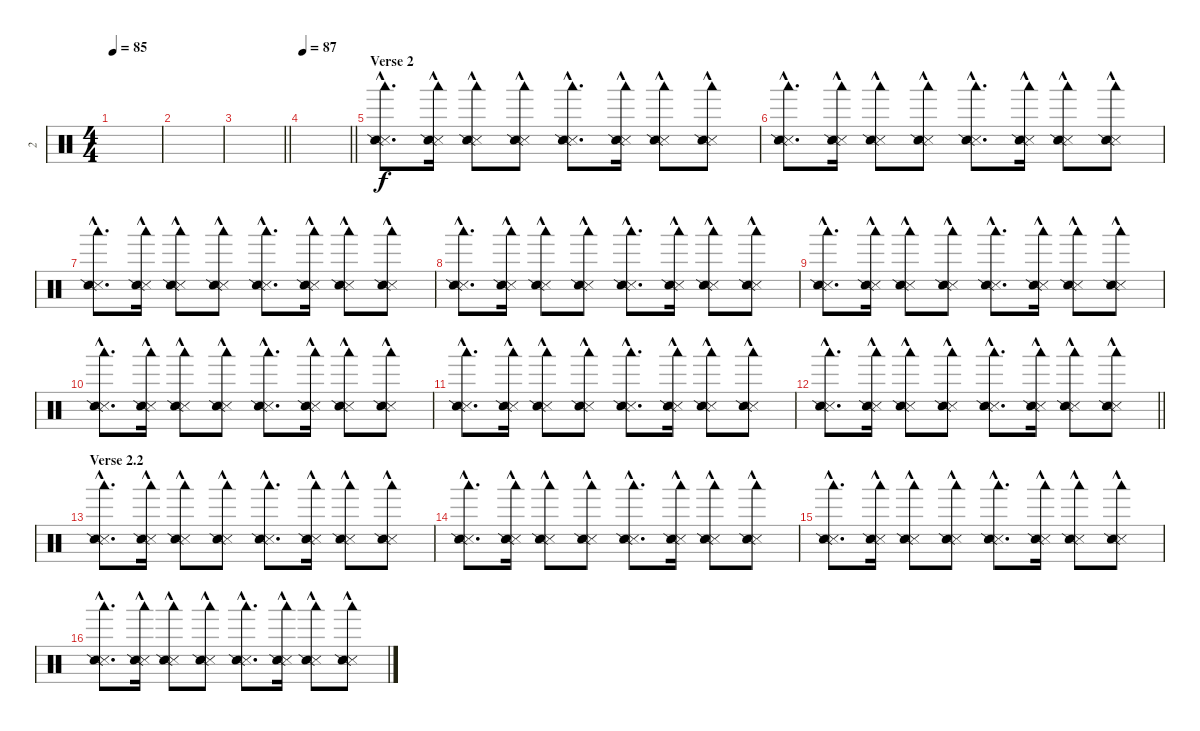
\track ("2" "2") {instrument percussion}
\staff {score}
\articulation defaults
\ts (4 4)
\tempo 85
\clef neutral
\ks c
|
|
\barLineRight lightlight
|
\section ("" "")
\tempo 87
\barLineRight lightlight
|
\section ("" "Verse 2")
("Snare (side stick) 3"{hac} "Snare (side stick) 2"{hac} "Woodblock low (hit)").8{d} ("Snare (side stick) 3"{hac} "Snare (side stick) 2"{hac} "Woodblock low (hit)").16 ("Snare (side stick) 3"{hac} "Snare (side stick) 2"{hac} "Woodblock low (hit)").8 ("Snare (side stick) 3"{hac} "Snare (side stick) 2"{hac} "Woodblock low (hit)").8 ("Snare (side stick) 3"{hac} "Snare (side stick) 2"{hac} "Woodblock low (hit)").8{d} ("Snare (side stick) 3"{hac} "Snare (side stick) 2"{hac} "Woodblock low (hit)").16 ("Snare (side stick) 3"{hac} "Snare (side stick) 2"{hac} "Woodblock low (hit)").8 ("Snare (side stick) 3"{hac} "Snare (side stick) 2"{hac} "Woodblock low (hit)").8 |
("Snare (side stick) 3"{hac} "Snare (side stick) 2"{hac} "Woodblock low (hit)").8{d} ("Snare (side stick) 3"{hac} "Snare (side stick) 2"{hac} "Woodblock low (hit)").16 ("Snare (side stick) 3"{hac} "Snare (side stick) 2"{hac} "Woodblock low (hit)").8 ("Snare (side stick) 3"{hac} "Snare (side stick) 2"{hac} "Woodblock low (hit)").8 ("Snare (side stick) 3"{hac} "Snare (side stick) 2"{hac} "Woodblock low (hit)").8{d} ("Snare (side stick) 3"{hac} "Snare (side stick) 2"{hac} "Woodblock low (hit)").16 ("Snare (side stick) 3"{hac} "Snare (side stick) 2"{hac} "Woodblock low (hit)").8 ("Snare (side stick) 3"{hac} "Snare (side stick) 2"{hac} "Woodblock low (hit)").8 |
("Snare (side stick) 3"{hac} "Snare (side stick) 2"{hac} "Woodblock low (hit)").8{d} ("Snare (side stick) 3"{hac} "Snare (side stick) 2"{hac} "Woodblock low (hit)").16 ("Snare (side stick) 3"{hac} "Snare (side stick) 2"{hac} "Woodblock low (hit)").8 ("Snare (side stick) 3"{hac} "Snare (side stick) 2"{hac} "Woodblock low (hit)").8 ("Snare (side stick) 3"{hac} "Snare (side stick) 2"{hac} "Woodblock low (hit)").8{d} ("Snare (side stick) 3"{hac} "Snare (side stick) 2"{hac} "Woodblock low (hit)").16 ("Snare (side stick) 3"{hac} "Snare (side stick) 2"{hac} "Woodblock low (hit)").8 ("Snare (side stick) 3"{hac} "Snare (side stick) 2"{hac} "Woodblock low (hit)").8 |
("Snare (side stick) 3"{hac} "Snare (side stick) 2"{hac} "Woodblock low (hit)").8{d} ("Snare (side stick) 3"{hac} "Snare (side stick) 2"{hac} "Woodblock low (hit)").16 ("Snare (side stick) 3"{hac} "Snare (side stick) 2"{hac} "Woodblock low (hit)").8 ("Snare (side stick) 3"{hac} "Snare (side stick) 2"{hac} "Woodblock low (hit)").8 ("Snare (side stick) 3"{hac} "Snare (side stick) 2"{hac} "Woodblock low (hit)").8{d} ("Snare (side stick) 3"{hac} "Snare (side stick) 2"{hac} "Woodblock low (hit)").16 ("Snare (side stick) 3"{hac} "Snare (side stick) 2"{hac} "Woodblock low (hit)").8 ("Snare (side stick) 3"{hac} "Snare (side stick) 2"{hac} "Woodblock low (hit)").8 |
("Snare (side stick) 3"{hac} "Snare (side stick) 2"{hac} "Woodblock low (hit)").8{d} ("Snare (side stick) 3"{hac} "Snare (side stick) 2"{hac} "Woodblock low (hit)").16 ("Snare (side stick) 3"{hac} "Snare (side stick) 2"{hac} "Woodblock low (hit)").8 ("Snare (side stick) 3"{hac} "Snare (side stick) 2"{hac} "Woodblock low (hit)").8 ("Snare (side stick) 3"{hac} "Snare (side stick) 2"{hac} "Woodblock low (hit)").8{d} ("Snare (side stick) 3"{hac} "Snare (side stick) 2"{hac} "Woodblock low (hit)").16 ("Snare (side stick) 3"{hac} "Snare (side stick) 2"{hac} "Woodblock low (hit)").8 ("Snare (side stick) 3"{hac} "Snare (side stick) 2"{hac} "Woodblock low (hit)").8 |
("Snare (side stick) 3"{hac} "Snare (side stick) 2"{hac} "Woodblock low (hit)").8{d} ("Snare (side stick) 3"{hac} "Snare (side stick) 2"{hac} "Woodblock low (hit)").16 ("Snare (side stick) 3"{hac} "Snare (side stick) 2"{hac} "Woodblock low (hit)").8 ("Snare (side stick) 3"{hac} "Snare (side stick) 2"{hac} "Woodblock low (hit)").8 ("Snare (side stick) 3"{hac} "Snare (side stick) 2"{hac} "Woodblock low (hit)").8{d} ("Snare (side stick) 3"{hac} "Snare (side stick) 2"{hac} "Woodblock low (hit)").16 ("Snare (side stick) 3"{hac} "Snare (side stick) 2"{hac} "Woodblock low (hit)").8 ("Snare (side stick) 3"{hac} "Snare (side stick) 2"{hac} "Woodblock low (hit)").8 |
("Snare (side stick) 3"{hac} "Snare (side stick) 2"{hac} "Woodblock low (hit)").8{d} ("Snare (side stick) 3"{hac} "Snare (side stick) 2"{hac} "Woodblock low (hit)").16 ("Snare (side stick) 3"{hac} "Snare (side stick) 2"{hac} "Woodblock low (hit)").8 ("Snare (side stick) 3"{hac} "Snare (side stick) 2"{hac} "Woodblock low (hit)").8 ("Snare (side stick) 3"{hac} "Snare (side stick) 2"{hac} "Woodblock low (hit)").8{d} ("Snare (side stick) 3"{hac} "Snare (side stick) 2"{hac} "Woodblock low (hit)").16 ("Snare (side stick) 3"{hac} "Snare (side stick) 2"{hac} "Woodblock low (hit)").8 ("Snare (side stick) 3"{hac} "Snare (side stick) 2"{hac} "Woodblock low (hit)").8 |
\barLineRight lightlight
("Snare (side stick) 3"{hac} "Snare (side stick) 2"{hac} "Woodblock low (hit)").8{d} ("Snare (side stick) 3"{hac} "Snare (side stick) 2"{hac} "Woodblock low (hit)").16 ("Snare (side stick) 3"{hac} "Snare (side stick) 2"{hac} "Woodblock low (hit)").8 ("Snare (side stick) 3"{hac} "Snare (side stick) 2"{hac} "Woodblock low (hit)").8 ("Snare (side stick) 3"{hac} "Snare (side stick) 2"{hac} "Woodblock low (hit)").8{d} ("Snare (side stick) 3"{hac} "Snare (side stick) 2"{hac} "Woodblock low (hit)").16 ("Snare (side stick) 3"{hac} "Snare (side stick) 2"{hac} "Woodblock low (hit)").8 ("Snare (side stick) 3"{hac} "Snare (side stick) 2"{hac} "Woodblock low (hit)").8 |
\section ("" "Verse 2.2")
("Snare (side stick) 3"{hac} "Snare (side stick) 2"{hac} "Woodblock low (hit)").8{d} ("Snare (side stick) 3"{hac} "Snare (side stick) 2"{hac} "Woodblock low (hit)").16 ("Snare (side stick) 3"{hac} "Snare (side stick) 2"{hac} "Woodblock low (hit)").8 ("Snare (side stick) 3"{hac} "Snare (side stick) 2"{hac} "Woodblock low (hit)").8 ("Snare (side stick) 3"{hac} "Snare (side stick) 2"{hac} "Woodblock low (hit)").8{d} ("Snare (side stick) 3"{hac} "Snare (side stick) 2"{hac} "Woodblock low (hit)").16 ("Snare (side stick) 3"{hac} "Snare (side stick) 2"{hac} "Woodblock low (hit)").8 ("Snare (side stick) 3"{hac} "Snare (side stick) 2"{hac} "Woodblock low (hit)").8 |
("Snare (side stick) 3"{hac} "Snare (side stick) 2"{hac} "Woodblock low (hit)").8{d} ("Snare (side stick) 3"{hac} "Snare (side stick) 2"{hac} "Woodblock low (hit)").16 ("Snare (side stick) 3"{hac} "Snare (side stick) 2"{hac} "Woodblock low (hit)").8 ("Snare (side stick) 3"{hac} "Snare (side stick) 2"{hac} "Woodblock low (hit)").8 ("Snare (side stick) 3"{hac} "Snare (side stick) 2"{hac} "Woodblock low (hit)").8{d} ("Snare (side stick) 3"{hac} "Snare (side stick) 2"{hac} "Woodblock low (hit)").16 ("Snare (side stick) 3"{hac} "Snare (side stick) 2"{hac} "Woodblock low (hit)").8 ("Snare (side stick) 3"{hac} "Snare (side stick) 2"{hac} "Woodblock low (hit)").8 |
("Snare (side stick) 3"{hac} "Snare (side stick) 2"{hac} "Woodblock low (hit)").8{d} ("Snare (side stick) 3"{hac} "Snare (side stick) 2"{hac} "Woodblock low (hit)").16 ("Snare (side stick) 3"{hac} "Snare (side stick) 2"{hac} "Woodblock low (hit)").8 ("Snare (side stick) 3"{hac} "Snare (side stick) 2"{hac} "Woodblock low (hit)").8 ("Snare (side stick) 3"{hac} "Snare (side stick) 2"{hac} "Woodblock low (hit)").8{d} ("Snare (side stick) 3"{hac} "Snare (side stick) 2"{hac} "Woodblock low (hit)").16 ("Snare (side stick) 3"{hac} "Snare (side stick) 2"{hac} "Woodblock low (hit)").8 ("Snare (side stick) 3"{hac} "Snare (side stick) 2"{hac} "Woodblock low (hit)").8 |
("Snare (side stick) 3"{hac} "Snare (side stick) 2"{hac} "Woodblock low (hit)").8{d} ("Snare (side stick) 3"{hac} "Snare (side stick) 2"{hac} "Woodblock low (hit)").16 ("Snare (side stick) 3"{hac} "Snare (side stick) 2"{hac} "Woodblock low (hit)").8 ("Snare (side stick) 3"{hac} "Snare (side stick) 2"{hac} "Woodblock low (hit)").8 ("Snare (side stick) 3"{hac} "Snare (side stick) 2"{hac} "Woodblock low (hit)").8{d} ("Snare (side stick) 3"{hac} "Snare (side stick) 2"{hac} "Woodblock low (hit)").16 ("Snare (side stick) 3"{hac} "Snare (side stick) 2"{hac} "Woodblock low (hit)").8 ("Snare (side stick) 3"{hac} "Snare (side stick) 2"{hac} "Woodblock low (hit)").8
